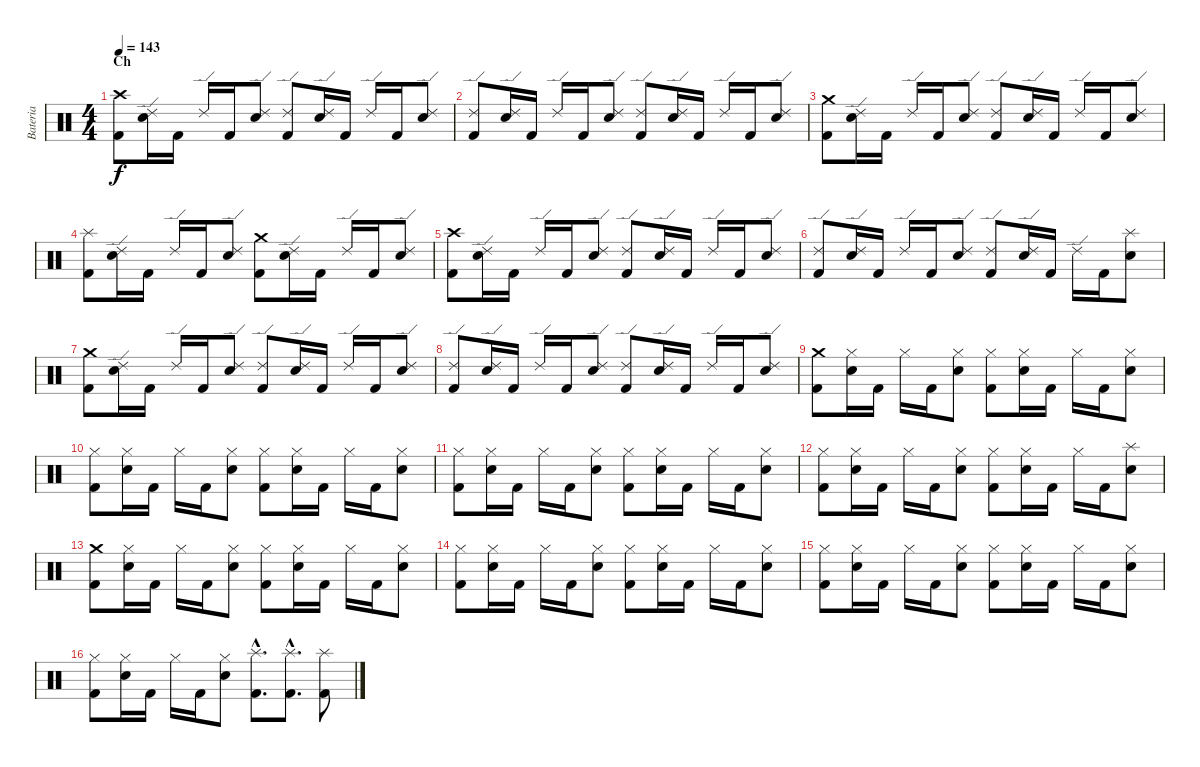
\track ("Bateria" "Bateria") {instrument percussion}
\staff {score}
\articulation defaults
\ts (4 4)
\section ("" "Ch")
\tempo 143
\clef neutral
\ks c
("Crash high (hit)" "Kick (hit) 2").8{dy f} ("Ride (edge) 2" "Snare (hit) 2").16 "Kick (hit) 2".16 "Ride (edge) 2".16 "Kick (hit) 2".16 ("Ride (edge) 2" "Snare (hit) 2").8 ("Ride (edge) 2" "Kick (hit) 2").8 ("Ride (edge) 2" "Snare (hit) 2").16 "Kick (hit) 2".16 "Ride (edge) 2".16 "Kick (hit) 2".16 ("Ride (edge) 2" "Snare (hit) 2").8 |
("Ride (edge) 2" "Kick (hit) 2").8 ("Ride (edge) 2" "Snare (hit) 2").16 "Kick (hit) 2".16 "Ride (edge) 2".16 "Kick (hit) 2".16 ("Ride (edge) 2" "Snare (hit) 2").8 ("Ride (edge) 2" "Kick (hit) 2").8 ("Ride (edge) 2" "Snare (hit) 2").16 "Kick (hit) 2".16 "Ride (edge) 2".16 "Kick (hit) 2".16 ("Ride (edge) 2" "Snare (hit) 2").8 |
("Crash medium (hit)" "Kick (hit) 2").8 ("Ride (edge) 2" "Snare (hit) 2").16 "Kick (hit) 2".16 "Ride (edge) 2".16 "Kick (hit) 2".16 ("Ride (edge) 2" "Snare (hit) 2").8 ("Ride (edge) 2" "Kick (hit) 2").8 ("Ride (edge) 2" "Snare (hit) 2").16 "Kick (hit) 2".16 "Ride (edge) 2".16 "Kick (hit) 2".16 ("Ride (edge) 2" "Snare (hit) 2").8 |
("Splash (hit)" "Kick (hit) 2").8 ("Ride (edge) 2" "Snare (hit) 2").16 "Kick (hit) 2".16 "Ride (edge) 2".16 "Kick (hit) 2".16 ("Ride (edge) 2" "Snare (hit) 2").8 ("Crash medium (hit)" "Kick (hit) 2").8 ("Ride (edge) 2" "Snare (hit) 2").16 "Kick (hit) 2".16 "Ride (edge) 2".16 "Kick (hit) 2".16 ("Ride (edge) 2" "Snare (hit) 2").8 |
("Crash high (hit)" "Kick (hit) 2").8 ("Ride (edge) 2" "Snare (hit) 2").16 "Kick (hit) 2".16 "Ride (edge) 2".16 "Kick (hit) 2".16 ("Ride (edge) 2" "Snare (hit) 2").8 ("Ride (edge) 2" "Kick (hit) 2").8 ("Ride (edge) 2" "Snare (hit) 2").16 "Kick (hit) 2".16 "Ride (edge) 2".16 "Kick (hit) 2".16 ("Ride (edge) 2" "Snare (hit) 2").8 |
("Ride (edge) 2" "Kick (hit) 2").8 ("Ride (edge) 2" "Snare (hit) 2").16 "Kick (hit) 2".16 "Ride (edge) 2".16 "Kick (hit) 2".16 ("Ride (edge) 2" "Snare (hit) 2").8 ("Ride (edge) 2" "Kick (hit) 2").8 ("Ride (edge) 2" "Snare (hit) 2").16 "Kick (hit) 2".16 "Ride (edge) 2".16 "Kick (hit) 2".16 ("Splash (hit)" "Snare (hit) 2").8 |
("Crash medium (hit)" "Kick (hit) 2").8 ("Ride (edge) 2" "Snare (hit) 2").16 "Kick (hit) 2".16 "Ride (edge) 2".16 "Kick (hit) 2".16 ("Ride (edge) 2" "Snare (hit) 2").8 ("Ride (edge) 2" "Kick (hit) 2").8 ("Ride (edge) 2" "Snare (hit) 2").16 "Kick (hit) 2".16 "Ride (edge) 2".16 "Kick (hit) 2".16 ("Ride (edge) 2" "Snare (hit) 2").8 |
("Ride (edge) 2" "Kick (hit) 2").8 ("Ride (edge) 2" "Snare (hit) 2").16 "Kick (hit) 2".16 "Ride (edge) 2".16 "Kick (hit) 2".16 ("Ride (edge) 2" "Snare (hit) 2").8 ("Ride (edge) 2" "Kick (hit) 2").8 ("Ride (edge) 2" "Snare (hit) 2").16 "Kick (hit) 2".16 "Ride (edge) 2".16 "Kick (hit) 2".16 ("Ride (edge) 2" "Snare (hit) 2").8 |
("Crash medium (hit)" "Kick (hit) 2").8 ("Hi-Hat (closed)" "Snare (hit) 2").16 "Kick (hit) 2".16 "Hi-Hat (closed)".16 "Kick (hit) 2".16 ("Hi-Hat (closed)" "Snare (hit) 2").8 ("Hi-Hat (closed)" "Kick (hit) 2").8 ("Hi-Hat (closed)" "Snare (hit) 2").16 "Kick (hit) 2".16 "Hi-Hat (closed)".16 "Kick (hit) 2".16 ("Hi-Hat (closed)" "Snare (hit) 2").8 |
("Hi-Hat (closed)" "Kick (hit) 2").8 ("Hi-Hat (closed)" "Snare (hit) 2").16 "Kick (hit) 2".16 "Hi-Hat (closed)".16 "Kick (hit) 2".16 ("Hi-Hat (closed)" "Snare (hit) 2").8 ("Hi-Hat (closed)" "Kick (hit) 2").8 ("Hi-Hat (closed)" "Snare (hit) 2").16 "Kick (hit) 2".16 "Hi-Hat (closed)".16 "Kick (hit) 2".16 ("Hi-Hat (closed)" "Snare (hit) 2").8 |
("Hi-Hat (closed)" "Kick (hit) 2").8 ("Hi-Hat (closed)" "Snare (hit) 2").16 "Kick (hit) 2".16 "Hi-Hat (closed)".16 "Kick (hit) 2".16 ("Hi-Hat (closed)" "Snare (hit) 2").8 ("Hi-Hat (closed)" "Kick (hit) 2").8 ("Hi-Hat (closed)" "Snare (hit) 2").16 "Kick (hit) 2".16 "Hi-Hat (closed)".16 "Kick (hit) 2".16 ("Hi-Hat (closed)" "Snare (hit) 2").8 |
("Hi-Hat (closed)" "Kick (hit) 2").8 ("Hi-Hat (closed)" "Snare (hit) 2").16 "Kick (hit) 2".16 "Hi-Hat (closed)".16 "Kick (hit) 2".16 ("Hi-Hat (closed)" "Snare (hit) 2").8 ("Hi-Hat (closed)" "Kick (hit) 2").8 ("Hi-Hat (closed)" "Snare (hit) 2").16 "Kick (hit) 2".16 "Hi-Hat (closed)".16 "Kick (hit) 2".16 ("Splash (hit)" "Snare (hit) 2").8 |
("Crash medium (hit)" "Kick (hit) 2").8 ("Hi-Hat (closed)" "Snare (hit) 2").16 "Kick (hit) 2".16 "Hi-Hat (closed)".16 "Kick (hit) 2".16 ("Hi-Hat (closed)" "Snare (hit) 2").8 ("Hi-Hat (closed)" "Kick (hit) 2").8 ("Hi-Hat (closed)" "Snare (hit) 2").16 "Kick (hit) 2".16 "Hi-Hat (closed)".16 "Kick (hit) 2".16 ("Hi-Hat (closed)" "Snare (hit) 2").8 |
("Hi-Hat (closed)" "Kick (hit) 2").8 ("Hi-Hat (closed)" "Snare (hit) 2").16 "Kick (hit) 2".16 "Hi-Hat (closed)".16 "Kick (hit) 2".16 ("Hi-Hat (closed)" "Snare (hit) 2").8 ("Hi-Hat (closed)" "Kick (hit) 2").8 ("Hi-Hat (closed)" "Snare (hit) 2").16 "Kick (hit) 2".16 "Hi-Hat (closed)".16 "Kick (hit) 2".16 ("Hi-Hat (closed)" "Snare (hit) 2").8 |
("Hi-Hat (closed)" "Kick (hit) 2").8 ("Hi-Hat (closed)" "Snare (hit) 2").16 "Kick (hit) 2".16 "Hi-Hat (closed)".16 "Kick (hit) 2".16 ("Hi-Hat (closed)" "Snare (hit) 2").8 ("Hi-Hat (closed)" "Kick (hit) 2").8 ("Hi-Hat (closed)" "Snare (hit) 2").16 "Kick (hit) 2".16 "Hi-Hat (closed)".16 "Kick (hit) 2".16 ("Hi-Hat (closed)" "Snare (hit) 2").8 |
("Hi-Hat (closed)" "Kick (hit) 2").8 ("Hi-Hat (closed)" "Snare (hit) 2").16 "Kick (hit) 2".16 "Hi-Hat (closed)".16 "Kick (hit) 2".16 ("Hi-Hat (closed)" "Snare (hit) 2").8 ("Splash (hit)"{hac} "Kick (hit) 2"{hac}).8{d} ("Splash (hit)"{hac} "Kick (hit) 2"{hac}).8{d} ("Splash (hit)" "Kick (hit) 2").8
